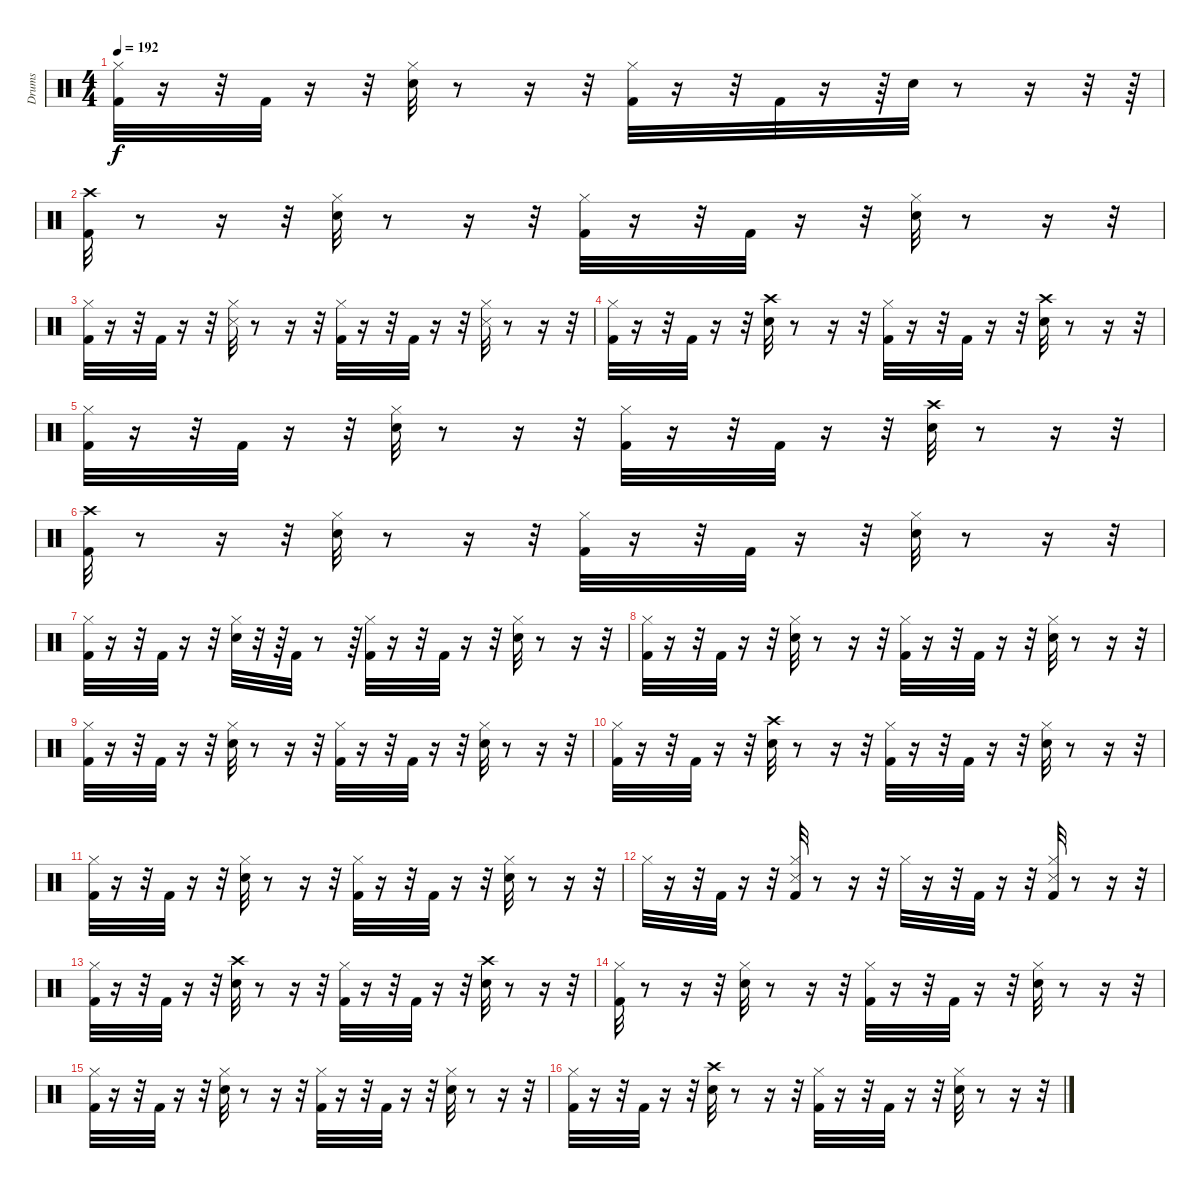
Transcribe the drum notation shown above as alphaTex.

\track ("Drums" "Drums") {instrument percussion}
\staff {score}
\articulation defaults
\ts (4 4)
\tempo 192
\clef neutral
\ks c
("Kick (hit) 2" "Hi-Hat (closed)").32{dy f} r.16 r.32 "Kick (hit) 2".32 r.16 r.32 ("Snare (hit) 2" "Hi-Hat (closed)").32 r.8 r.16 r.32 ("Kick (hit) 2" "Hi-Hat (closed)").32 r.16 r.32 "Kick (hit) 2".32 r.16 r.64 "Snare (hit) 2".32 r.8 r.16 r.32 r.64 |
("Kick (hit) 2" "Crash high (hit)").32 r.8 r.16 r.32 ("Hi-Hat (closed)" "Snare (hit) 2").32 r.8 r.16 r.32 ("Hi-Hat (closed)" "Kick (hit) 2").32 r.16 r.32 "Kick (hit) 2".32 r.16 r.32 ("Hi-Hat (closed)" "Snare (hit) 2").32 r.8 r.16 r.32 |
("Kick (hit) 2" "Hi-Hat (closed)").32 r.16 r.32 "Kick (hit) 2".32 r.16 r.32 ("Snare (side stick) 3" "Hi-Hat (closed)").32 r.8 r.16 r.32 ("Kick (hit) 2" "Hi-Hat (closed)").32 r.16 r.32 "Kick (hit) 2".32 r.16 r.32 ("Snare (side stick) 3" "Hi-Hat (closed)").32 r.8 r.16 r.32 |
("Kick (hit) 2" "Hi-Hat (closed)").32 r.16 r.32 "Kick (hit) 2".32 r.16 r.32 ("Crash high (hit)" "Snare (hit) 2").32 r.8 r.16 r.32 ("Kick (hit) 2" "Hi-Hat (closed)").32 r.16 r.32 "Kick (hit) 2".32 r.16 r.32 ("Crash high (hit)" "Snare (hit) 2").32 r.8 r.16 r.32 |
("Hi-Hat (closed)" "Kick (hit) 2").32 r.16 r.32 "Kick (hit) 2".32 r.16 r.32 ("Snare (hit) 2" "Hi-Hat (closed)").32 r.8 r.16 r.32 ("Hi-Hat (closed)" "Kick (hit) 2").32 r.16 r.32 "Kick (hit) 2".32 r.16 r.32 ("Crash high (hit)" "Snare (hit) 2").32 r.8 r.16 r.32 |
("Kick (hit) 2" "Crash high (hit)").32 r.8 r.16 r.32 ("Hi-Hat (closed)" "Snare (hit) 2").32 r.8 r.16 r.32 ("Hi-Hat (closed)" "Kick (hit) 2").32 r.16 r.32 "Kick (hit) 2".32 r.16 r.32 ("Hi-Hat (closed)" "Snare (hit) 2").32 r.8 r.16 r.32 |
("Kick (hit) 2" "Hi-Hat (closed)").32 r.16 r.32 "Kick (hit) 2".32 r.16 r.32 ("Snare (hit) 2" "Hi-Hat (closed)").32 r.32 r.64 "Kick (hit) 2".32 r.8 r.64 ("Kick (hit) 2" "Hi-Hat (closed)").32 r.16 r.32 "Kick (hit) 2".32 r.16 r.32 ("Snare (hit) 2" "Hi-Hat (closed)").32 r.8 r.16 r.32 |
("Kick (hit) 2" "Hi-Hat (closed)").32 r.16 r.32 "Kick (hit) 2".32 r.16 r.32 ("Snare (hit) 2" "Hi-Hat (closed)").32 r.8 r.16 r.32 ("Kick (hit) 2" "Hi-Hat (closed)").32 r.16 r.32 "Kick (hit) 2".32 r.16 r.32 ("Snare (hit) 2" "Hi-Hat (closed)").32 r.8 r.16 r.32 |
("Kick (hit) 2" "Hi-Hat (closed)").32 r.16 r.32 "Kick (hit) 2".32 r.16 r.32 ("Snare (hit) 2" "Hi-Hat (closed)").32 r.8 r.16 r.32 ("Kick (hit) 2" "Hi-Hat (closed)").32 r.16 r.32 "Kick (hit) 2".32 r.16 r.32 ("Snare (hit) 2" "Hi-Hat (closed)").32 r.8 r.16 r.32 |
("Kick (hit) 2" "Hi-Hat (closed)").32 r.16 r.32 "Kick (hit) 2".32 r.16 r.32 ("Crash high (hit)" "Snare (hit) 2").32 r.8 r.16 r.32 ("Kick (hit) 2" "Hi-Hat (closed)").32 r.16 r.32 "Kick (hit) 2".32 r.16 r.32 ("Snare (hit) 2" "Hi-Hat (closed)").32 r.8 r.16 r.32 |
("Kick (hit) 2" "Hi-Hat (closed)").32 r.16 r.32 "Kick (hit) 2".32 r.16 r.32 ("Snare (hit) 2" "Hi-Hat (closed)").32 r.8 r.16 r.32 ("Kick (hit) 2" "Hi-Hat (closed)").32 r.16 r.32 "Kick (hit) 2".32 r.16 r.32 ("Snare (hit) 2" "Hi-Hat (closed)").32 r.8 r.16 r.32 |
"Hi-Hat (closed)".32 r.16 r.32 "Kick (hit) 2".32 r.16 r.32 ("Kick (hit) 2" "Snare (side stick) 3" "Hi-Hat (closed)").32 r.8 r.16 r.32 "Hi-Hat (closed)".32 r.16 r.32 "Kick (hit) 2".32 r.16 r.32 ("Kick (hit) 2" "Snare (side stick) 3" "Hi-Hat (closed)").32 r.8 r.16 r.32 |
("Kick (hit) 2" "Hi-Hat (closed)").32 r.16 r.32 "Kick (hit) 2".32 r.16 r.32 ("Crash high (hit)" "Snare (hit) 2").32 r.8 r.16 r.32 ("Kick (hit) 2" "Hi-Hat (closed)").32 r.16 r.32 "Kick (hit) 2".32 r.16 r.32 ("Crash high (hit)" "Snare (hit) 2").32 r.8 r.16 r.32 |
("Kick (hit) 2" "Hi-Hat (closed)").32 r.8 r.16 r.32 ("Snare (hit) 2" "Hi-Hat (closed)").32 r.8 r.16 r.32 ("Kick (hit) 2" "Hi-Hat (closed)").32 r.16 r.32 "Kick (hit) 2".32 r.16 r.32 ("Hi-Hat (closed)" "Snare (hit) 2").32 r.8 r.16 r.32 |
("Kick (hit) 2" "Hi-Hat (closed)").32 r.16 r.32 "Kick (hit) 2".32 r.16 r.32 ("Snare (hit) 2" "Hi-Hat (closed)").32 r.8 r.16 r.32 ("Kick (hit) 2" "Hi-Hat (closed)").32 r.16 r.32 "Kick (hit) 2".32 r.16 r.32 ("Snare (hit) 2" "Hi-Hat (closed)").32 r.8 r.16 r.32 |
("Kick (hit) 2" "Hi-Hat (closed)").32 r.16 r.32 "Kick (hit) 2".32 r.16 r.32 ("Crash high (hit)" "Snare (hit) 2").32 r.8 r.16 r.32 ("Kick (hit) 2" "Hi-Hat (closed)").32 r.16 r.32 "Kick (hit) 2".32 r.16 r.32 ("Snare (hit) 2" "Hi-Hat (closed)").32 r.8 r.16 r.32
